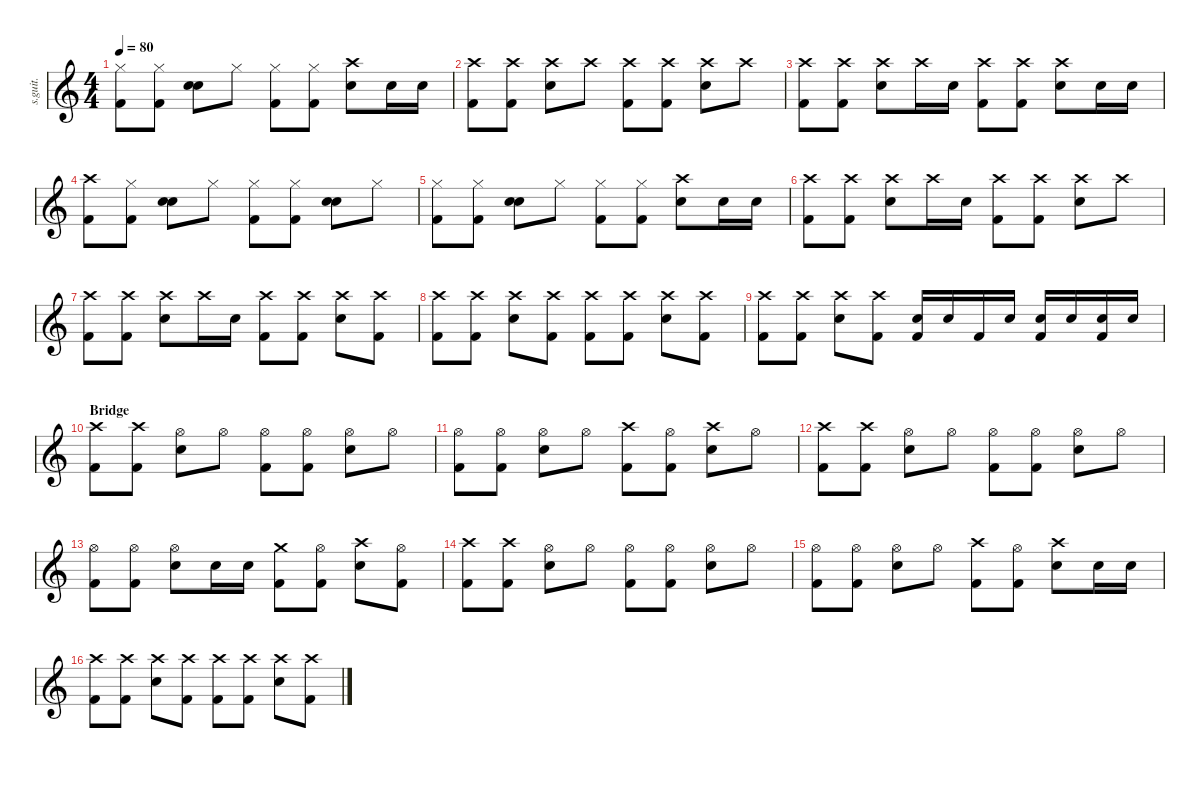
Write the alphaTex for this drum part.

\defaultSystemsLayout 4
\hideDynamics
\bracketExtendMode nobrackets
\track ("Tré Cool" "s.guit.") {instrument percussion}
\staff {score}
\articulation defaults
\ts (4 4)
\tempo 80
\clef g2
\ks c
("Hi-Hat (closed)" "Kick (hit) 2").8{lyrics (0 "") lyrics (1 "") lyrics (2 "") lyrics (3 "") lyrics (4 "") dy f} ("Hi-Hat (closed)" "Kick (hit) 2").8{lyrics (0 "") lyrics (1 "") lyrics (2 "") lyrics (3 "") lyrics (4 "")} ("Snare (hit) 2" "Snare (hit) 2").8{lyrics (0 "") lyrics (1 "") lyrics (2 "") lyrics (3 "") lyrics (4 "")} "Hi-Hat (closed)".8{lyrics (0 "") lyrics (1 "") lyrics (2 "") lyrics (3 "") lyrics (4 "")} ("Hi-Hat (closed)" "Kick (hit) 2").8{lyrics (0 "") lyrics (1 "") lyrics (2 "") lyrics (3 "") lyrics (4 "")} ("Hi-Hat (closed)" "Kick (hit) 2").8{lyrics (0 "") lyrics (1 "") lyrics (2 "") lyrics (3 "") lyrics (4 "")} ("Crash high (hit)" "Snare (hit) 2").8{lyrics (0 "") lyrics (1 "") lyrics (2 "") lyrics (3 "") lyrics (4 "")} "Snare (hit) 2".16{lyrics (0 "") lyrics (1 "") lyrics (2 "") lyrics (3 "") lyrics (4 "")} "Snare (hit) 2".16{lyrics (0 "") lyrics (1 "") lyrics (2 "") lyrics (3 "") lyrics (4 "")} |
("Crash high (hit)" "Kick (hit) 2").8{lyrics (0 "") lyrics (1 "") lyrics (2 "") lyrics (3 "") lyrics (4 "")} ("Crash high (hit)" "Kick (hit) 2").8{lyrics (0 "") lyrics (1 "") lyrics (2 "") lyrics (3 "") lyrics (4 "")} ("Crash high (hit)" "Snare (hit) 2").8{lyrics (0 "") lyrics (1 "") lyrics (2 "") lyrics (3 "") lyrics (4 "")} "Crash high (hit)".8{lyrics (0 "") lyrics (1 "") lyrics (2 "") lyrics (3 "") lyrics (4 "")} ("Crash high (hit)" "Kick (hit) 2").8{lyrics (0 "") lyrics (1 "") lyrics (2 "") lyrics (3 "") lyrics (4 "")} ("Crash high (hit)" "Kick (hit) 2").8{lyrics (0 "") lyrics (1 "") lyrics (2 "") lyrics (3 "") lyrics (4 "")} ("Crash high (hit)" "Snare (hit) 2").8{lyrics (0 "") lyrics (1 "") lyrics (2 "") lyrics (3 "") lyrics (4 "")} "Crash high (hit)".8{lyrics (0 "") lyrics (1 "") lyrics (2 "") lyrics (3 "") lyrics (4 "")} |
("Crash high (hit)" "Kick (hit) 2").8{lyrics (0 "") lyrics (1 "") lyrics (2 "") lyrics (3 "") lyrics (4 "")} ("Crash high (hit)" "Kick (hit) 2").8{lyrics (0 "") lyrics (1 "") lyrics (2 "") lyrics (3 "") lyrics (4 "")} ("Crash high (hit)" "Snare (hit) 2").8{lyrics (0 "") lyrics (1 "") lyrics (2 "") lyrics (3 "") lyrics (4 "")} "Crash high (hit)".16{lyrics (0 "") lyrics (1 "") lyrics (2 "") lyrics (3 "") lyrics (4 "")} "Snare (hit) 2".16{lyrics (0 "") lyrics (1 "") lyrics (2 "") lyrics (3 "") lyrics (4 "")} ("Crash high (hit)" "Kick (hit) 2").8{lyrics (0 "") lyrics (1 "") lyrics (2 "") lyrics (3 "") lyrics (4 "")} ("Crash high (hit)" "Kick (hit) 2").8{lyrics (0 "") lyrics (1 "") lyrics (2 "") lyrics (3 "") lyrics (4 "")} ("Crash high (hit)" "Snare (hit) 2").8{lyrics (0 "") lyrics (1 "") lyrics (2 "") lyrics (3 "") lyrics (4 "")} "Snare (hit) 2".16{lyrics (0 "") lyrics (1 "") lyrics (2 "") lyrics (3 "") lyrics (4 "")} "Snare (hit) 2".16{lyrics (0 "") lyrics (1 "") lyrics (2 "") lyrics (3 "") lyrics (4 "")} |
("Crash high (hit)" "Kick (hit) 2").8{lyrics (0 "") lyrics (1 "") lyrics (2 "") lyrics (3 "") lyrics (4 "")} ("Hi-Hat (closed)" "Kick (hit) 2").8{lyrics (0 "") lyrics (1 "") lyrics (2 "") lyrics (3 "") lyrics (4 "")} ("Snare (hit) 2" "Snare (hit) 2").8{lyrics (0 "") lyrics (1 "") lyrics (2 "") lyrics (3 "") lyrics (4 "")} "Hi-Hat (closed)".8{lyrics (0 "") lyrics (1 "") lyrics (2 "") lyrics (3 "") lyrics (4 "")} ("Hi-Hat (closed)" "Kick (hit) 2").8{lyrics (0 "") lyrics (1 "") lyrics (2 "") lyrics (3 "") lyrics (4 "")} ("Hi-Hat (closed)" "Kick (hit) 2").8{lyrics (0 "") lyrics (1 "") lyrics (2 "") lyrics (3 "") lyrics (4 "")} ("Snare (hit) 2" "Snare (hit) 2").8{lyrics (0 "") lyrics (1 "") lyrics (2 "") lyrics (3 "") lyrics (4 "")} "Hi-Hat (closed)".8{lyrics (0 "") lyrics (1 "") lyrics (2 "") lyrics (3 "") lyrics (4 "")} |
("Hi-Hat (closed)" "Kick (hit) 2").8{lyrics (0 "") lyrics (1 "") lyrics (2 "") lyrics (3 "") lyrics (4 "")} ("Hi-Hat (closed)" "Kick (hit) 2").8{lyrics (0 "") lyrics (1 "") lyrics (2 "") lyrics (3 "") lyrics (4 "")} ("Snare (hit) 2" "Snare (hit) 2").8{lyrics (0 "") lyrics (1 "") lyrics (2 "") lyrics (3 "") lyrics (4 "")} "Hi-Hat (closed)".8{lyrics (0 "") lyrics (1 "") lyrics (2 "") lyrics (3 "") lyrics (4 "")} ("Hi-Hat (closed)" "Kick (hit) 2").8{lyrics (0 "") lyrics (1 "") lyrics (2 "") lyrics (3 "") lyrics (4 "")} ("Hi-Hat (closed)" "Kick (hit) 2").8{lyrics (0 "") lyrics (1 "") lyrics (2 "") lyrics (3 "") lyrics (4 "")} ("Crash high (hit)" "Snare (hit) 2").8{lyrics (0 "") lyrics (1 "") lyrics (2 "") lyrics (3 "") lyrics (4 "")} "Snare (hit) 2".16{lyrics (0 "") lyrics (1 "") lyrics (2 "") lyrics (3 "") lyrics (4 "")} "Snare (hit) 2".16{lyrics (0 "") lyrics (1 "") lyrics (2 "") lyrics (3 "") lyrics (4 "")} |
("Crash high (hit)" "Kick (hit) 2").8{lyrics (0 "") lyrics (1 "") lyrics (2 "") lyrics (3 "") lyrics (4 "")} ("Crash high (hit)" "Kick (hit) 2").8{lyrics (0 "") lyrics (1 "") lyrics (2 "") lyrics (3 "") lyrics (4 "")} ("Crash high (hit)" "Snare (hit) 2").8{lyrics (0 "") lyrics (1 "") lyrics (2 "") lyrics (3 "") lyrics (4 "")} "Crash high (hit)".16{lyrics (0 "") lyrics (1 "") lyrics (2 "") lyrics (3 "") lyrics (4 "")} "Snare (hit) 2".16{lyrics (0 "") lyrics (1 "") lyrics (2 "") lyrics (3 "") lyrics (4 "")} ("Crash high (hit)" "Kick (hit) 2").8{lyrics (0 "") lyrics (1 "") lyrics (2 "") lyrics (3 "") lyrics (4 "")} ("Crash high (hit)" "Kick (hit) 2").8{lyrics (0 "") lyrics (1 "") lyrics (2 "") lyrics (3 "") lyrics (4 "")} ("Crash high (hit)" "Snare (hit) 2").8{lyrics (0 "") lyrics (1 "") lyrics (2 "") lyrics (3 "") lyrics (4 "")} "Crash high (hit)".8{lyrics (0 "") lyrics (1 "") lyrics (2 "") lyrics (3 "") lyrics (4 "")} |
("Crash high (hit)" "Kick (hit) 2").8{lyrics (0 "") lyrics (1 "") lyrics (2 "") lyrics (3 "") lyrics (4 "")} ("Crash high (hit)" "Kick (hit) 2").8{lyrics (0 "") lyrics (1 "") lyrics (2 "") lyrics (3 "") lyrics (4 "")} ("Crash high (hit)" "Snare (hit) 2").8{lyrics (0 "") lyrics (1 "") lyrics (2 "") lyrics (3 "") lyrics (4 "")} "Crash high (hit)".16{lyrics (0 "") lyrics (1 "") lyrics (2 "") lyrics (3 "") lyrics (4 "")} "Snare (hit) 2".16{lyrics (0 "") lyrics (1 "") lyrics (2 "") lyrics (3 "") lyrics (4 "")} ("Crash high (hit)" "Kick (hit) 2").8{lyrics (0 "") lyrics (1 "") lyrics (2 "") lyrics (3 "") lyrics (4 "")} ("Crash high (hit)" "Kick (hit) 2").8{lyrics (0 "") lyrics (1 "") lyrics (2 "") lyrics (3 "") lyrics (4 "")} ("Crash high (hit)" "Snare (hit) 2").8{lyrics (0 "") lyrics (1 "") lyrics (2 "") lyrics (3 "") lyrics (4 "")} ("Crash high (hit)" "Kick (hit) 2").8{lyrics (0 "") lyrics (1 "") lyrics (2 "") lyrics (3 "") lyrics (4 "")} |
("Crash high (hit)" "Kick (hit) 2").8{lyrics (0 "") lyrics (1 "") lyrics (2 "") lyrics (3 "") lyrics (4 "")} ("Crash high (hit)" "Kick (hit) 2").8{lyrics (0 "") lyrics (1 "") lyrics (2 "") lyrics (3 "") lyrics (4 "")} ("Crash high (hit)" "Snare (hit) 2").8{lyrics (0 "") lyrics (1 "") lyrics (2 "") lyrics (3 "") lyrics (4 "")} ("Crash high (hit)" "Kick (hit) 2").8{lyrics (0 "") lyrics (1 "") lyrics (2 "") lyrics (3 "") lyrics (4 "")} ("Crash high (hit)" "Kick (hit) 2").8{lyrics (0 "") lyrics (1 "") lyrics (2 "") lyrics (3 "") lyrics (4 "")} ("Crash high (hit)" "Kick (hit) 2").8{lyrics (0 "") lyrics (1 "") lyrics (2 "") lyrics (3 "") lyrics (4 "")} ("Crash high (hit)" "Snare (hit) 2").8{lyrics (0 "") lyrics (1 "") lyrics (2 "") lyrics (3 "") lyrics (4 "")} ("Crash high (hit)" "Kick (hit) 2").8{lyrics (0 "") lyrics (1 "") lyrics (2 "") lyrics (3 "") lyrics (4 "")} |
("Crash high (hit)" "Kick (hit) 2").8{lyrics (0 "") lyrics (1 "") lyrics (2 "") lyrics (3 "") lyrics (4 "")} ("Crash high (hit)" "Kick (hit) 2").8{lyrics (0 "") lyrics (1 "") lyrics (2 "") lyrics (3 "") lyrics (4 "")} ("Crash high (hit)" "Snare (hit) 2").8{lyrics (0 "") lyrics (1 "") lyrics (2 "") lyrics (3 "") lyrics (4 "")} ("Crash high (hit)" "Kick (hit) 2").8{lyrics (0 "") lyrics (1 "") lyrics (2 "") lyrics (3 "") lyrics (4 "")} ("Snare (hit) 2" "Kick (hit) 2").16{lyrics (0 "") lyrics (1 "") lyrics (2 "") lyrics (3 "") lyrics (4 "")} "Snare (hit) 2".16{lyrics (0 "") lyrics (1 "") lyrics (2 "") lyrics (3 "") lyrics (4 "")} "Kick (hit) 2".16{lyrics (0 "") lyrics (1 "") lyrics (2 "") lyrics (3 "") lyrics (4 "")} "Snare (hit) 2".16{lyrics (0 "") lyrics (1 "") lyrics (2 "") lyrics (3 "") lyrics (4 "")} ("Snare (hit) 2" "Kick (hit) 2").16{lyrics (0 "") lyrics (1 "") lyrics (2 "") lyrics (3 "") lyrics (4 "")} "Snare (hit) 2".16{lyrics (0 "") lyrics (1 "") lyrics (2 "") lyrics (3 "") lyrics (4 "")} ("Snare (hit) 2" "Kick (hit) 2").16{lyrics (0 "") lyrics (1 "") lyrics (2 "") lyrics (3 "") lyrics (4 "")} "Snare (hit) 2".16{lyrics (0 "") lyrics (1 "") lyrics (2 "") lyrics (3 "") lyrics (4 "")} |
\section ("" "Bridge")
("Crash high (hit)" "Kick (hit) 2").8{lyrics (0 "") lyrics (1 "") lyrics (2 "") lyrics (3 "") lyrics (4 "")} ("Crash high (hit)" "Kick (hit) 2").8{lyrics (0 "") lyrics (1 "") lyrics (2 "") lyrics (3 "") lyrics (4 "")} ("Hi-Hat (open)" "Snare (hit) 2").8{lyrics (0 "") lyrics (1 "") lyrics (2 "") lyrics (3 "") lyrics (4 "")} "Hi-Hat (open)".8{lyrics (0 "") lyrics (1 "") lyrics (2 "") lyrics (3 "") lyrics (4 "")} ("Hi-Hat (open)" "Kick (hit) 2").8{lyrics (0 "") lyrics (1 "") lyrics (2 "") lyrics (3 "") lyrics (4 "")} ("Hi-Hat (open)" "Kick (hit) 2").8{lyrics (0 "") lyrics (1 "") lyrics (2 "") lyrics (3 "") lyrics (4 "")} ("Hi-Hat (open)" "Snare (hit) 2").8{lyrics (0 "") lyrics (1 "") lyrics (2 "") lyrics (3 "") lyrics (4 "")} "Hi-Hat (open)".8{lyrics (0 "") lyrics (1 "") lyrics (2 "") lyrics (3 "") lyrics (4 "")} |
("Hi-Hat (open)" "Kick (hit) 2").8{lyrics (0 "") lyrics (1 "") lyrics (2 "") lyrics (3 "") lyrics (4 "")} ("Hi-Hat (open)" "Kick (hit) 2").8{lyrics (0 "") lyrics (1 "") lyrics (2 "") lyrics (3 "") lyrics (4 "")} ("Hi-Hat (open)" "Snare (hit) 2").8{lyrics (0 "") lyrics (1 "") lyrics (2 "") lyrics (3 "") lyrics (4 "")} "Hi-Hat (open)".8{lyrics (0 "") lyrics (1 "") lyrics (2 "") lyrics (3 "") lyrics (4 "")} ("Crash high (hit)" "Kick (hit) 2").8{lyrics (0 "") lyrics (1 "") lyrics (2 "") lyrics (3 "") lyrics (4 "")} ("Hi-Hat (open)" "Kick (hit) 2").8{lyrics (0 "") lyrics (1 "") lyrics (2 "") lyrics (3 "") lyrics (4 "")} ("Crash high (hit)" "Snare (hit) 2").8{lyrics (0 "") lyrics (1 "") lyrics (2 "") lyrics (3 "") lyrics (4 "")} "Hi-Hat (open)".8{lyrics (0 "") lyrics (1 "") lyrics (2 "") lyrics (3 "") lyrics (4 "")} |
("Crash high (hit)" "Kick (hit) 2").8{lyrics (0 "") lyrics (1 "") lyrics (2 "") lyrics (3 "") lyrics (4 "")} ("Crash high (hit)" "Kick (hit) 2").8{lyrics (0 "") lyrics (1 "") lyrics (2 "") lyrics (3 "") lyrics (4 "")} ("Hi-Hat (open)" "Snare (hit) 2").8{lyrics (0 "") lyrics (1 "") lyrics (2 "") lyrics (3 "") lyrics (4 "")} "Hi-Hat (open)".8{lyrics (0 "") lyrics (1 "") lyrics (2 "") lyrics (3 "") lyrics (4 "")} ("Hi-Hat (open)" "Kick (hit) 2").8{lyrics (0 "") lyrics (1 "") lyrics (2 "") lyrics (3 "") lyrics (4 "")} ("Hi-Hat (open)" "Kick (hit) 2").8{lyrics (0 "") lyrics (1 "") lyrics (2 "") lyrics (3 "") lyrics (4 "")} ("Hi-Hat (open)" "Snare (hit) 2").8{lyrics (0 "") lyrics (1 "") lyrics (2 "") lyrics (3 "") lyrics (4 "")} "Hi-Hat (open)".8{lyrics (0 "") lyrics (1 "") lyrics (2 "") lyrics (3 "") lyrics (4 "")} |
("Hi-Hat (open)" "Kick (hit) 2").8{lyrics (0 "") lyrics (1 "") lyrics (2 "") lyrics (3 "") lyrics (4 "")} ("Hi-Hat (open)" "Kick (hit) 2").8{lyrics (0 "") lyrics (1 "") lyrics (2 "") lyrics (3 "") lyrics (4 "")} ("Hi-Hat (open)" "Snare (hit) 2").8{lyrics (0 "") lyrics (1 "") lyrics (2 "") lyrics (3 "") lyrics (4 "")} "Snare (hit) 2".16{lyrics (0 "") lyrics (1 "") lyrics (2 "") lyrics (3 "") lyrics (4 "")} "Snare (hit) 2".16{lyrics (0 "") lyrics (1 "") lyrics (2 "") lyrics (3 "") lyrics (4 "")} ("Crash medium (hit)" "Kick (hit) 2").8{lyrics (0 "") lyrics (1 "") lyrics (2 "") lyrics (3 "") lyrics (4 "")} ("Hi-Hat (open)" "Kick (hit) 2").8{lyrics (0 "") lyrics (1 "") lyrics (2 "") lyrics (3 "") lyrics (4 "")} ("Crash high (hit)" "Snare (hit) 2").8{lyrics (0 "") lyrics (1 "") lyrics (2 "") lyrics (3 "") lyrics (4 "")} ("Hi-Hat (open)" "Kick (hit) 2").8{lyrics (0 "") lyrics (1 "") lyrics (2 "") lyrics (3 "") lyrics (4 "")} |
("Crash high (hit)" "Kick (hit) 2").8{lyrics (0 "") lyrics (1 "") lyrics (2 "") lyrics (3 "") lyrics (4 "")} ("Crash high (hit)" "Kick (hit) 2").8{lyrics (0 "") lyrics (1 "") lyrics (2 "") lyrics (3 "") lyrics (4 "")} ("Hi-Hat (open)" "Snare (hit) 2").8{lyrics (0 "") lyrics (1 "") lyrics (2 "") lyrics (3 "") lyrics (4 "")} "Hi-Hat (open)".8{lyrics (0 "") lyrics (1 "") lyrics (2 "") lyrics (3 "") lyrics (4 "")} ("Hi-Hat (open)" "Kick (hit) 2").8{lyrics (0 "") lyrics (1 "") lyrics (2 "") lyrics (3 "") lyrics (4 "")} ("Hi-Hat (open)" "Kick (hit) 2").8{lyrics (0 "") lyrics (1 "") lyrics (2 "") lyrics (3 "") lyrics (4 "")} ("Hi-Hat (open)" "Snare (hit) 2").8{lyrics (0 "") lyrics (1 "") lyrics (2 "") lyrics (3 "") lyrics (4 "")} "Hi-Hat (open)".8{lyrics (0 "") lyrics (1 "") lyrics (2 "") lyrics (3 "") lyrics (4 "")} |
("Hi-Hat (open)" "Kick (hit) 2").8{lyrics (0 "") lyrics (1 "") lyrics (2 "") lyrics (3 "") lyrics (4 "")} ("Hi-Hat (open)" "Kick (hit) 2").8{lyrics (0 "") lyrics (1 "") lyrics (2 "") lyrics (3 "") lyrics (4 "")} ("Hi-Hat (open)" "Snare (hit) 2").8{lyrics (0 "") lyrics (1 "") lyrics (2 "") lyrics (3 "") lyrics (4 "")} "Hi-Hat (open)".8{lyrics (0 "") lyrics (1 "") lyrics (2 "") lyrics (3 "") lyrics (4 "")} ("Crash high (hit)" "Kick (hit) 2").8{lyrics (0 "") lyrics (1 "") lyrics (2 "") lyrics (3 "") lyrics (4 "")} ("Hi-Hat (open)" "Kick (hit) 2").8{lyrics (0 "") lyrics (1 "") lyrics (2 "") lyrics (3 "") lyrics (4 "")} ("Crash high (hit)" "Snare (hit) 2").8{lyrics (0 "") lyrics (1 "") lyrics (2 "") lyrics (3 "") lyrics (4 "")} "Snare (hit) 2".16{lyrics (0 "") lyrics (1 "") lyrics (2 "") lyrics (3 "") lyrics (4 "")} "Snare (hit) 2".16{lyrics (0 "") lyrics (1 "") lyrics (2 "") lyrics (3 "") lyrics (4 "")} |
("Crash high (hit)" "Kick (hit) 2").8{lyrics (0 "") lyrics (1 "") lyrics (2 "") lyrics (3 "") lyrics (4 "")} ("Crash high (hit)" "Kick (hit) 2").8{lyrics (0 "") lyrics (1 "") lyrics (2 "") lyrics (3 "") lyrics (4 "")} ("Crash high (hit)" "Snare (hit) 2").8{lyrics (0 "") lyrics (1 "") lyrics (2 "") lyrics (3 "") lyrics (4 "")} ("Crash high (hit)" "Kick (hit) 2").8{lyrics (0 "") lyrics (1 "") lyrics (2 "") lyrics (3 "") lyrics (4 "")} ("Crash high (hit)" "Kick (hit) 2").8{lyrics (0 "") lyrics (1 "") lyrics (2 "") lyrics (3 "") lyrics (4 "")} ("Crash high (hit)" "Kick (hit) 2").8{lyrics (0 "") lyrics (1 "") lyrics (2 "") lyrics (3 "") lyrics (4 "")} ("Crash high (hit)" "Snare (hit) 2").8{lyrics (0 "") lyrics (1 "") lyrics (2 "") lyrics (3 "") lyrics (4 "")} ("Crash high (hit)" "Kick (hit) 2").8{lyrics (0 "") lyrics (1 "") lyrics (2 "") lyrics (3 "") lyrics (4 "")}
